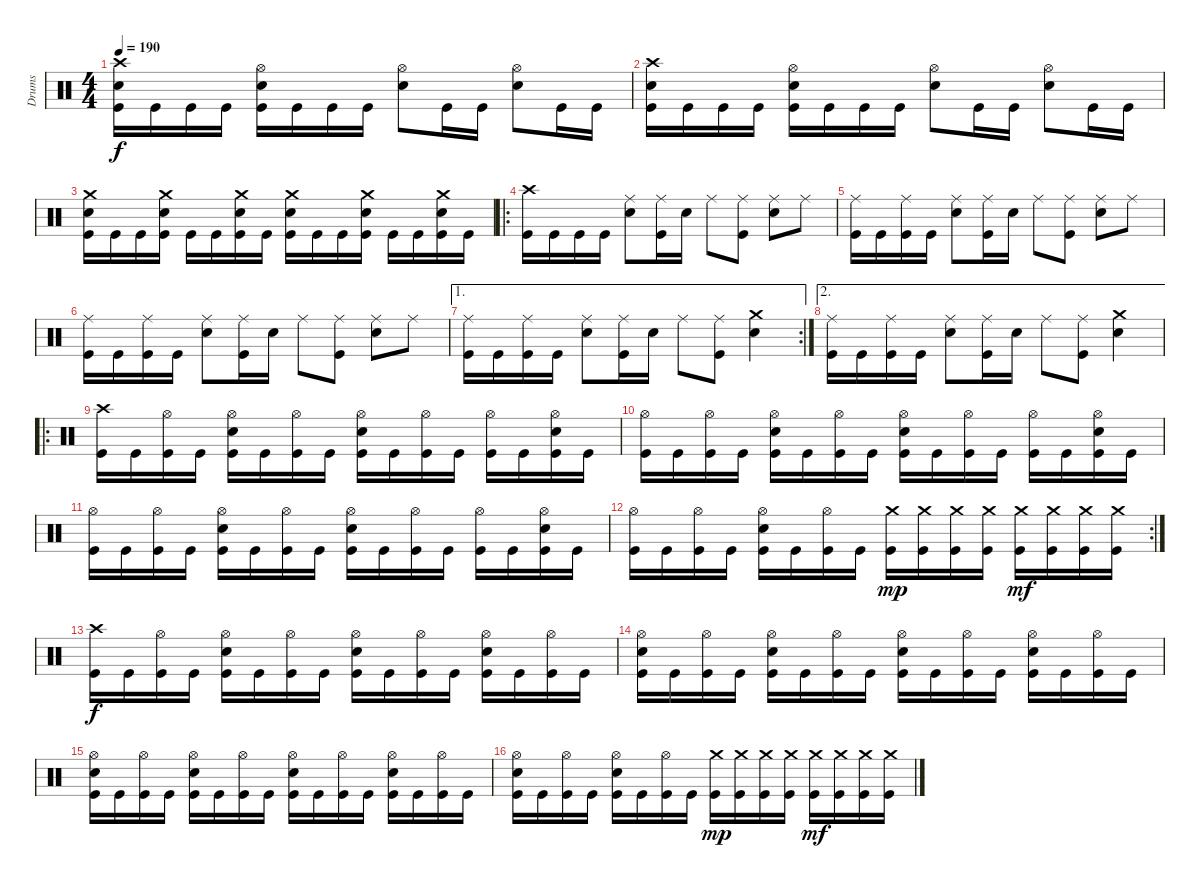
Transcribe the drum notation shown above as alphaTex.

\track ("Drums" "Drums") {instrument percussion}
\staff {score}
\articulation defaults
\ts (4 4)
\tempo 190
\clef neutral
\ks c
("Crash high (hit)" "Electric Snare (hit)" "Kick (hit)").16{dy f} "Kick (hit)".16 "Kick (hit)".16 "Kick (hit)".16 ("Hi-Hat (open)" "Electric Snare (hit)" "Kick (hit)").16 "Kick (hit)".16 "Kick (hit)".16 "Kick (hit)".16 ("Hi-Hat (open)" "Electric Snare (hit)").8 "Kick (hit)".16 "Kick (hit)".16 ("Hi-Hat (open)" "Electric Snare (hit)").8 "Kick (hit)".16 "Kick (hit)".16 |
("Crash high (hit)" "Electric Snare (hit)" "Kick (hit)").16 "Kick (hit)".16 "Kick (hit)".16 "Kick (hit)".16 ("Hi-Hat (open)" "Electric Snare (hit)" "Kick (hit)").16 "Kick (hit)".16 "Kick (hit)".16 "Kick (hit)".16 ("Hi-Hat (open)" "Electric Snare (hit)").8 "Kick (hit)".16 "Kick (hit)".16 ("Hi-Hat (open)" "Electric Snare (hit)").8 "Kick (hit)".16 "Kick (hit)".16 |
("Crash medium (hit)" "Electric Snare (hit)" "Kick (hit)").16 "Kick (hit)".16 "Kick (hit)".16 ("Crash medium (hit)" "Electric Snare (hit)" "Kick (hit)").16 "Kick (hit)".16 "Kick (hit)".16 ("Crash medium (hit)" "Electric Snare (hit)" "Kick (hit)").16 "Kick (hit)".16 ("Crash medium (hit)" "Electric Snare (hit)" "Kick (hit)").16 "Kick (hit)".16 "Kick (hit)".16 ("Crash medium (hit)" "Electric Snare (hit)" "Kick (hit)").16 "Kick (hit)".16 "Kick (hit)".16 ("Crash medium (hit)" "Electric Snare (hit)" "Kick (hit)").16 "Kick (hit)".16 |
\ro
("Crash high (hit)" "Kick (hit)").16 "Kick (hit)".16 "Kick (hit)".16 "Kick (hit)".16 ("Ride (middle)" "Electric Snare (hit)").8 ("Ride (middle)" "Kick (hit)").16 "Electric Snare (hit)".16 "Ride (middle)".8 ("Ride (middle)" "Kick (hit)").8 ("Ride (middle)" "Electric Snare (hit)").8 "Ride (middle)".8 |
("Ride (middle)" "Kick (hit)").16 "Kick (hit)".16 ("Ride (middle)" "Kick (hit)").16 "Kick (hit)".16 ("Ride (middle)" "Electric Snare (hit)").8 ("Ride (middle)" "Kick (hit)").16 "Electric Snare (hit)".16 "Ride (middle)".8 ("Ride (middle)" "Kick (hit)").8 ("Ride (middle)" "Electric Snare (hit)").8 "Ride (middle)".8 |
("Ride (middle)" "Kick (hit)").16 "Kick (hit)".16 ("Ride (middle)" "Kick (hit)").16 "Kick (hit)".16 ("Ride (middle)" "Electric Snare (hit)").8 ("Ride (middle)" "Kick (hit)").16 "Electric Snare (hit)".16 "Ride (middle)".8 ("Ride (middle)" "Kick (hit)").8 ("Ride (middle)" "Electric Snare (hit)").8 "Ride (middle)".8 |
\ae 1
\rc 2
("Ride (middle)" "Kick (hit)").16 "Kick (hit)".16 ("Ride (middle)" "Kick (hit)").16 "Kick (hit)".16 ("Ride (middle)" "Electric Snare (hit)").8 ("Ride (middle)" "Kick (hit)").16 "Electric Snare (hit)".16 "Ride (middle)".8 ("Ride (middle)" "Kick (hit)").8 ("Crash medium (hit)" "Electric Snare (hit)").4 |
\ae 2
("Ride (middle)" "Kick (hit)").16 "Kick (hit)".16 ("Ride (middle)" "Kick (hit)").16 "Kick (hit)".16 ("Ride (middle)" "Electric Snare (hit)").8 ("Ride (middle)" "Kick (hit)").16 "Electric Snare (hit)".16 "Ride (middle)".8 ("Ride (middle)" "Kick (hit)").8 ("Crash medium (hit)" "Electric Snare (hit)").4 |
\ro
("Crash high (hit)" "Kick (hit)").16 "Kick (hit)".16 ("Hi-Hat (open)" "Kick (hit)").16 "Kick (hit)".16 ("Hi-Hat (open)" "Electric Snare (hit)" "Kick (hit)").16 "Kick (hit)".16 ("Hi-Hat (open)" "Kick (hit)").16 "Kick (hit)".16 ("Hi-Hat (open)" "Electric Snare (hit)" "Kick (hit)").16 "Kick (hit)".16 ("Hi-Hat (open)" "Kick (hit)").16 "Kick (hit)".16 ("Hi-Hat (open)" "Kick (hit)").16 "Kick (hit)".16 ("Hi-Hat (open)" "Electric Snare (hit)" "Kick (hit)").16 "Kick (hit)".16 |
("Hi-Hat (open)" "Kick (hit)").16 "Kick (hit)".16 ("Hi-Hat (open)" "Kick (hit)").16 "Kick (hit)".16 ("Hi-Hat (open)" "Electric Snare (hit)" "Kick (hit)").16 "Kick (hit)".16 ("Hi-Hat (open)" "Kick (hit)").16 "Kick (hit)".16 ("Hi-Hat (open)" "Electric Snare (hit)" "Kick (hit)").16 "Kick (hit)".16 ("Hi-Hat (open)" "Kick (hit)").16 "Kick (hit)".16 ("Hi-Hat (open)" "Kick (hit)").16 "Kick (hit)".16 ("Hi-Hat (open)" "Electric Snare (hit)" "Kick (hit)").16 "Kick (hit)".16 |
("Hi-Hat (open)" "Kick (hit)").16 "Kick (hit)".16 ("Hi-Hat (open)" "Kick (hit)").16 "Kick (hit)".16 ("Hi-Hat (open)" "Electric Snare (hit)" "Kick (hit)").16 "Kick (hit)".16 ("Hi-Hat (open)" "Kick (hit)").16 "Kick (hit)".16 ("Hi-Hat (open)" "Electric Snare (hit)" "Kick (hit)").16 "Kick (hit)".16 ("Hi-Hat (open)" "Kick (hit)").16 "Kick (hit)".16 ("Hi-Hat (open)" "Kick (hit)").16 "Kick (hit)".16 ("Hi-Hat (open)" "Electric Snare (hit)" "Kick (hit)").16 "Kick (hit)".16 |
\rc 2
("Hi-Hat (open)" "Kick (hit)").16 "Kick (hit)".16 ("Hi-Hat (open)" "Kick (hit)").16 "Kick (hit)".16 ("Hi-Hat (open)" "Electric Snare (hit)" "Kick (hit)").16 "Kick (hit)".16 ("Hi-Hat (open)" "Kick (hit)").16 "Kick (hit)".16 ("Crash medium (hit)" "Kick (hit)").16{dy mp} ("Crash medium (hit)" "Kick (hit)").16 ("Crash medium (hit)" "Kick (hit)").16 ("Crash medium (hit)" "Kick (hit)").16 ("Crash medium (hit)" "Kick (hit)").16{dy mf} ("Crash medium (hit)" "Kick (hit)").16 ("Crash medium (hit)" "Kick (hit)").16 ("Crash medium (hit)" "Kick (hit)").16 |
("Crash high (hit)" "Kick (hit)").16{dy f} "Kick (hit)".16 ("Hi-Hat (open)" "Kick (hit)").16 "Kick (hit)".16 ("Hi-Hat (open)" "Electric Snare (hit)" "Kick (hit)").16 "Kick (hit)".16 ("Hi-Hat (open)" "Kick (hit)").16 "Kick (hit)".16 ("Hi-Hat (open)" "Electric Snare (hit)" "Kick (hit)").16 "Kick (hit)".16 ("Hi-Hat (open)" "Kick (hit)").16 "Kick (hit)".16 ("Hi-Hat (open)" "Electric Snare (hit)" "Kick (hit)").16 "Kick (hit)".16 ("Hi-Hat (open)" "Kick (hit)").16 "Kick (hit)".16 |
("Hi-Hat (open)" "Electric Snare (hit)" "Kick (hit)").16 "Kick (hit)".16 ("Hi-Hat (open)" "Kick (hit)").16 "Kick (hit)".16 ("Hi-Hat (open)" "Electric Snare (hit)" "Kick (hit)").16 "Kick (hit)".16 ("Hi-Hat (open)" "Kick (hit)").16 "Kick (hit)".16 ("Hi-Hat (open)" "Electric Snare (hit)" "Kick (hit)").16 "Kick (hit)".16 ("Hi-Hat (open)" "Kick (hit)").16 "Kick (hit)".16 ("Hi-Hat (open)" "Electric Snare (hit)" "Kick (hit)").16 "Kick (hit)".16 ("Hi-Hat (open)" "Kick (hit)").16 "Kick (hit)".16 |
("Hi-Hat (open)" "Electric Snare (hit)" "Kick (hit)").16 "Kick (hit)".16 ("Hi-Hat (open)" "Kick (hit)").16 "Kick (hit)".16 ("Hi-Hat (open)" "Electric Snare (hit)" "Kick (hit)").16 "Kick (hit)".16 ("Hi-Hat (open)" "Kick (hit)").16 "Kick (hit)".16 ("Hi-Hat (open)" "Electric Snare (hit)" "Kick (hit)").16 "Kick (hit)".16 ("Hi-Hat (open)" "Kick (hit)").16 "Kick (hit)".16 ("Hi-Hat (open)" "Electric Snare (hit)" "Kick (hit)").16 "Kick (hit)".16 ("Hi-Hat (open)" "Kick (hit)").16 "Kick (hit)".16 |
("Hi-Hat (open)" "Electric Snare (hit)" "Kick (hit)").16 "Kick (hit)".16 ("Hi-Hat (open)" "Kick (hit)").16 "Kick (hit)".16 ("Hi-Hat (open)" "Electric Snare (hit)" "Kick (hit)").16 "Kick (hit)".16 ("Hi-Hat (open)" "Kick (hit)").16 "Kick (hit)".16 ("Crash medium (hit)" "Kick (hit)").16{dy mp} ("Crash medium (hit)" "Kick (hit)").16 ("Crash medium (hit)" "Kick (hit)").16 ("Crash medium (hit)" "Kick (hit)").16 ("Crash medium (hit)" "Kick (hit)").16{dy mf} ("Crash medium (hit)" "Kick (hit)").16 ("Crash medium (hit)" "Kick (hit)").16 ("Crash medium (hit)" "Kick (hit)").16
